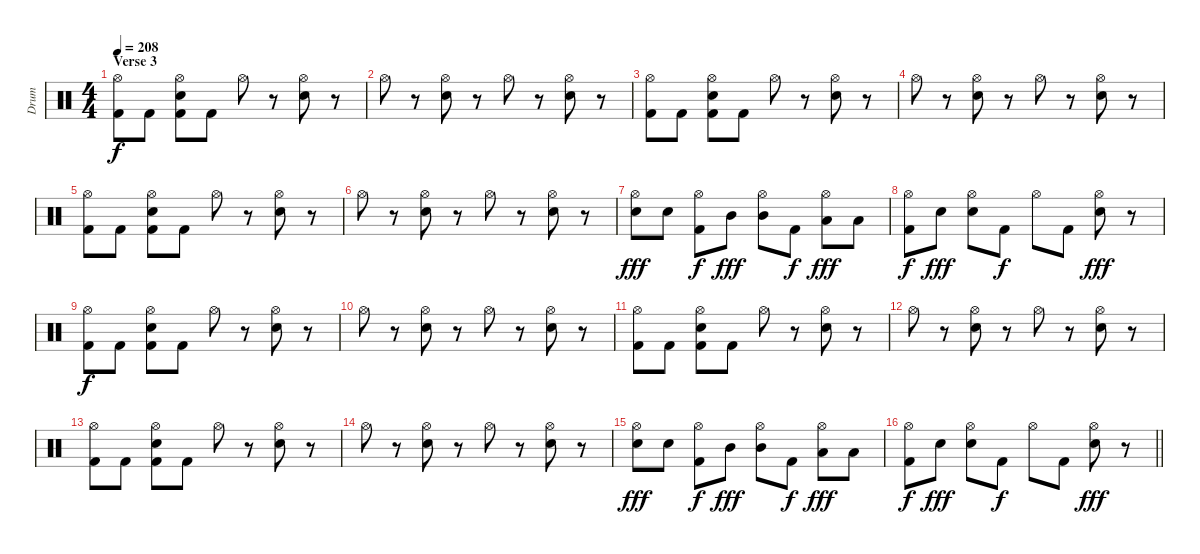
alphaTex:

\track ("Drum" "Drum") {instrument percussion}
\staff {score}
\articulation defaults
\ts (4 4)
\section ("" "Verse 3")
\tempo 208
\clef neutral
\ks c
("Hi-Hat (open)" "Kick (hit) 2").8{dy f} "Kick (hit) 2".8 ("Hi-Hat (open)" "Electric Snare (hit)" "Kick (hit) 2").8 "Kick (hit) 2".8 "Hi-Hat (open)".8 r.8 ("Hi-Hat (open)" "Electric Snare (hit)").8 r.8 |
"Hi-Hat (open)".8 r.8 ("Hi-Hat (open)" "Electric Snare (hit)").8 r.8 "Hi-Hat (open)".8 r.8 ("Hi-Hat (open)" "Electric Snare (hit)").8 r.8 |
("Hi-Hat (open)" "Kick (hit) 2").8 "Kick (hit) 2".8 ("Hi-Hat (open)" "Electric Snare (hit)" "Kick (hit) 2").8 "Kick (hit) 2".8 "Hi-Hat (open)".8 r.8 ("Hi-Hat (open)" "Electric Snare (hit)").8 r.8 |
"Hi-Hat (open)".8 r.8 ("Hi-Hat (open)" "Electric Snare (hit)").8 r.8 "Hi-Hat (open)".8 r.8 ("Hi-Hat (open)" "Electric Snare (hit)").8 r.8 |
("Hi-Hat (open)" "Kick (hit) 2").8 "Kick (hit) 2".8 ("Hi-Hat (open)" "Electric Snare (hit)" "Kick (hit) 2").8 "Kick (hit) 2".8 "Hi-Hat (open)".8 r.8 ("Hi-Hat (open)" "Electric Snare (hit)").8 r.8 |
"Hi-Hat (open)".8 r.8 ("Hi-Hat (open)" "Electric Snare (hit)").8 r.8 "Hi-Hat (open)".8 r.8 ("Hi-Hat (open)" "Electric Snare (hit)").8 r.8 |
("Hi-Hat (open)" "Electric Snare (hit)").8{dy fff} "Electric Snare (hit)".8 ("Hi-Hat (open)" "Kick (hit) 2").8{dy f} "Mid Tom (hit)".8{dy fff} ("Hi-Hat (open)" "Mid Tom (hit)").8 "Kick (hit) 2".8{dy f} ("Hi-Hat (open)" "Low Tom (hit)").8{dy fff} "Low Tom (hit)".8 |
("Hi-Hat (open)" "Kick (hit) 2").8{dy f} "Electric Snare (hit)".8{dy fff} ("Hi-Hat (open)" "Electric Snare (hit)").8 "Kick (hit) 2".8{dy f} "Hi-Hat (open)".8 "Kick (hit) 2".8 ("Hi-Hat (open)" "Electric Snare (hit)").8{dy fff} r.8 |
("Hi-Hat (open)" "Kick (hit) 2").8{dy f} "Kick (hit) 2".8 ("Hi-Hat (open)" "Electric Snare (hit)" "Kick (hit) 2").8 "Kick (hit) 2".8 "Hi-Hat (open)".8 r.8 ("Hi-Hat (open)" "Electric Snare (hit)").8 r.8 |
"Hi-Hat (open)".8 r.8 ("Hi-Hat (open)" "Electric Snare (hit)").8 r.8 "Hi-Hat (open)".8 r.8 ("Hi-Hat (open)" "Electric Snare (hit)").8 r.8 |
("Hi-Hat (open)" "Kick (hit) 2").8 "Kick (hit) 2".8 ("Hi-Hat (open)" "Electric Snare (hit)" "Kick (hit) 2").8 "Kick (hit) 2".8 "Hi-Hat (open)".8 r.8 ("Hi-Hat (open)" "Electric Snare (hit)").8 r.8 |
"Hi-Hat (open)".8 r.8 ("Hi-Hat (open)" "Electric Snare (hit)").8 r.8 "Hi-Hat (open)".8 r.8 ("Hi-Hat (open)" "Electric Snare (hit)").8 r.8 |
("Hi-Hat (open)" "Kick (hit) 2").8 "Kick (hit) 2".8 ("Hi-Hat (open)" "Electric Snare (hit)" "Kick (hit) 2").8 "Kick (hit) 2".8 "Hi-Hat (open)".8 r.8 ("Hi-Hat (open)" "Electric Snare (hit)").8 r.8 |
"Hi-Hat (open)".8 r.8 ("Hi-Hat (open)" "Electric Snare (hit)").8 r.8 "Hi-Hat (open)".8 r.8 ("Hi-Hat (open)" "Electric Snare (hit)").8 r.8 |
("Hi-Hat (open)" "Electric Snare (hit)").8{dy fff} "Electric Snare (hit)".8 ("Hi-Hat (open)" "Kick (hit) 2").8{dy f} "Mid Tom (hit)".8{dy fff} ("Hi-Hat (open)" "Mid Tom (hit)").8 "Kick (hit) 2".8{dy f} ("Hi-Hat (open)" "Low Tom (hit)").8{dy fff} "Low Tom (hit)".8 |
\barLineRight lightlight
("Hi-Hat (open)" "Kick (hit) 2").8{dy f} "Electric Snare (hit)".8{dy fff} ("Hi-Hat (open)" "Electric Snare (hit)").8 "Kick (hit) 2".8{dy f} "Hi-Hat (open)".8 "Kick (hit) 2".8 ("Hi-Hat (open)" "Electric Snare (hit)").8{dy fff} r.8
